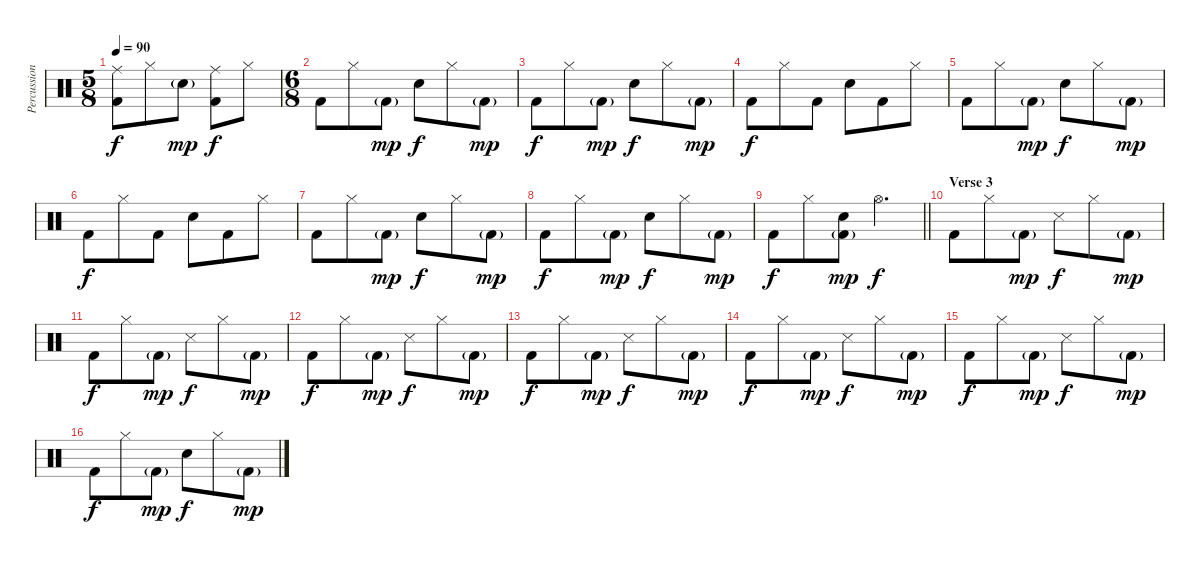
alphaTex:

\track ("Percussion" "Percussion") {instrument percussion}
\staff {score}
\articulation defaults
\ts (5 8)
\tempo 90
\clef neutral
\ks c
("Ride (middle)" "Kick (hit) 2").8{dy f} "Hi-Hat (closed)".8 "Snare (hit) 2"{g}.8{dy mp} ("Ride (middle)" "Kick (hit) 2").8{dy f} "Hi-Hat (closed)".8 |
\ts (6 8)
"Kick (hit) 2".8 "Hi-Hat (closed)".8 "Kick (hit) 2"{g}.8{dy mp} "Snare (hit) 2".8{dy f} "Hi-Hat (closed)".8 "Kick (hit) 2"{g}.8{dy mp} |
"Kick (hit) 2".8{dy f} "Hi-Hat (closed)".8 "Kick (hit) 2"{g}.8{dy mp} "Snare (hit) 2".8{dy f} "Hi-Hat (closed)".8 "Kick (hit) 2"{g}.8{dy mp} |
"Kick (hit) 2".8{dy f} "Hi-Hat (closed)".8 "Kick (hit) 2".8 "Snare (hit) 2".8 "Kick (hit) 2".8 "Hi-Hat (closed)".8 |
"Kick (hit) 2".8 "Hi-Hat (closed)".8 "Kick (hit) 2"{g}.8{dy mp} "Snare (hit) 2".8{dy f} "Hi-Hat (closed)".8 "Kick (hit) 2"{g}.8{dy mp} |
"Kick (hit) 2".8{dy f} "Hi-Hat (closed)".8 "Kick (hit) 2".8 "Snare (hit) 2".8 "Kick (hit) 2".8 "Hi-Hat (closed)".8 |
"Kick (hit) 2".8 "Hi-Hat (closed)".8 "Kick (hit) 2"{g}.8{dy mp} "Snare (hit) 2".8{dy f} "Hi-Hat (closed)".8 "Kick (hit) 2"{g}.8{dy mp} |
"Kick (hit) 2".8{dy f} "Hi-Hat (closed)".8 "Kick (hit) 2"{g}.8{dy mp} "Snare (hit) 2".8{dy f} "Hi-Hat (closed)".8 "Kick (hit) 2"{g}.8{dy mp} |
\barLineRight lightlight "Kick (hit) 2".8{dy f} "Hi-Hat (closed)".8
("Snare (hit) 2" "Kick (hit) 2"{g}).8{dy mp} "Hi-Hat (open)".4{d dy f} |
\section ("" "Verse 3")
"Kick (hit) 2".8 "Hi-Hat (closed)".8 "Kick (hit) 2"{g}.8{dy mp} "Snare (side stick) 3".8{dy f} "Hi-Hat (closed)".8 "Kick (hit) 2"{g}.8{dy mp} |
"Kick (hit) 2".8{dy f} "Hi-Hat (closed)".8 "Kick (hit) 2"{g}.8{dy mp} "Snare (side stick) 3".8{dy f} "Hi-Hat (closed)".8 "Kick (hit) 2"{g}.8{dy mp} |
"Kick (hit) 2".8{dy f} "Hi-Hat (closed)".8 "Kick (hit) 2"{g}.8{dy mp} "Snare (side stick) 3".8{dy f} "Hi-Hat (closed)".8 "Kick (hit) 2"{g}.8{dy mp} |
"Kick (hit) 2".8{dy f} "Hi-Hat (closed)".8 "Kick (hit) 2"{g}.8{dy mp} "Snare (side stick) 3".8{dy f} "Hi-Hat (closed)".8 "Kick (hit) 2"{g}.8{dy mp} |
"Kick (hit) 2".8{dy f} "Hi-Hat (closed)".8 "Kick (hit) 2"{g}.8{dy mp} "Snare (side stick) 3".8{dy f} "Hi-Hat (closed)".8 "Kick (hit) 2"{g}.8{dy mp} |
"Kick (hit) 2".8{dy f} "Hi-Hat (closed)".8 "Kick (hit) 2"{g}.8{dy mp} "Snare (side stick) 3".8{dy f} "Hi-Hat (closed)".8 "Kick (hit) 2"{g}.8{dy mp} |
"Kick (hit) 2".8{dy f} "Hi-Hat (closed)".8 "Kick (hit) 2"{g}.8{dy mp} "Snare (hit) 2".8{dy f} "Hi-Hat (closed)".8 "Kick (hit) 2"{g}.8{dy mp}
